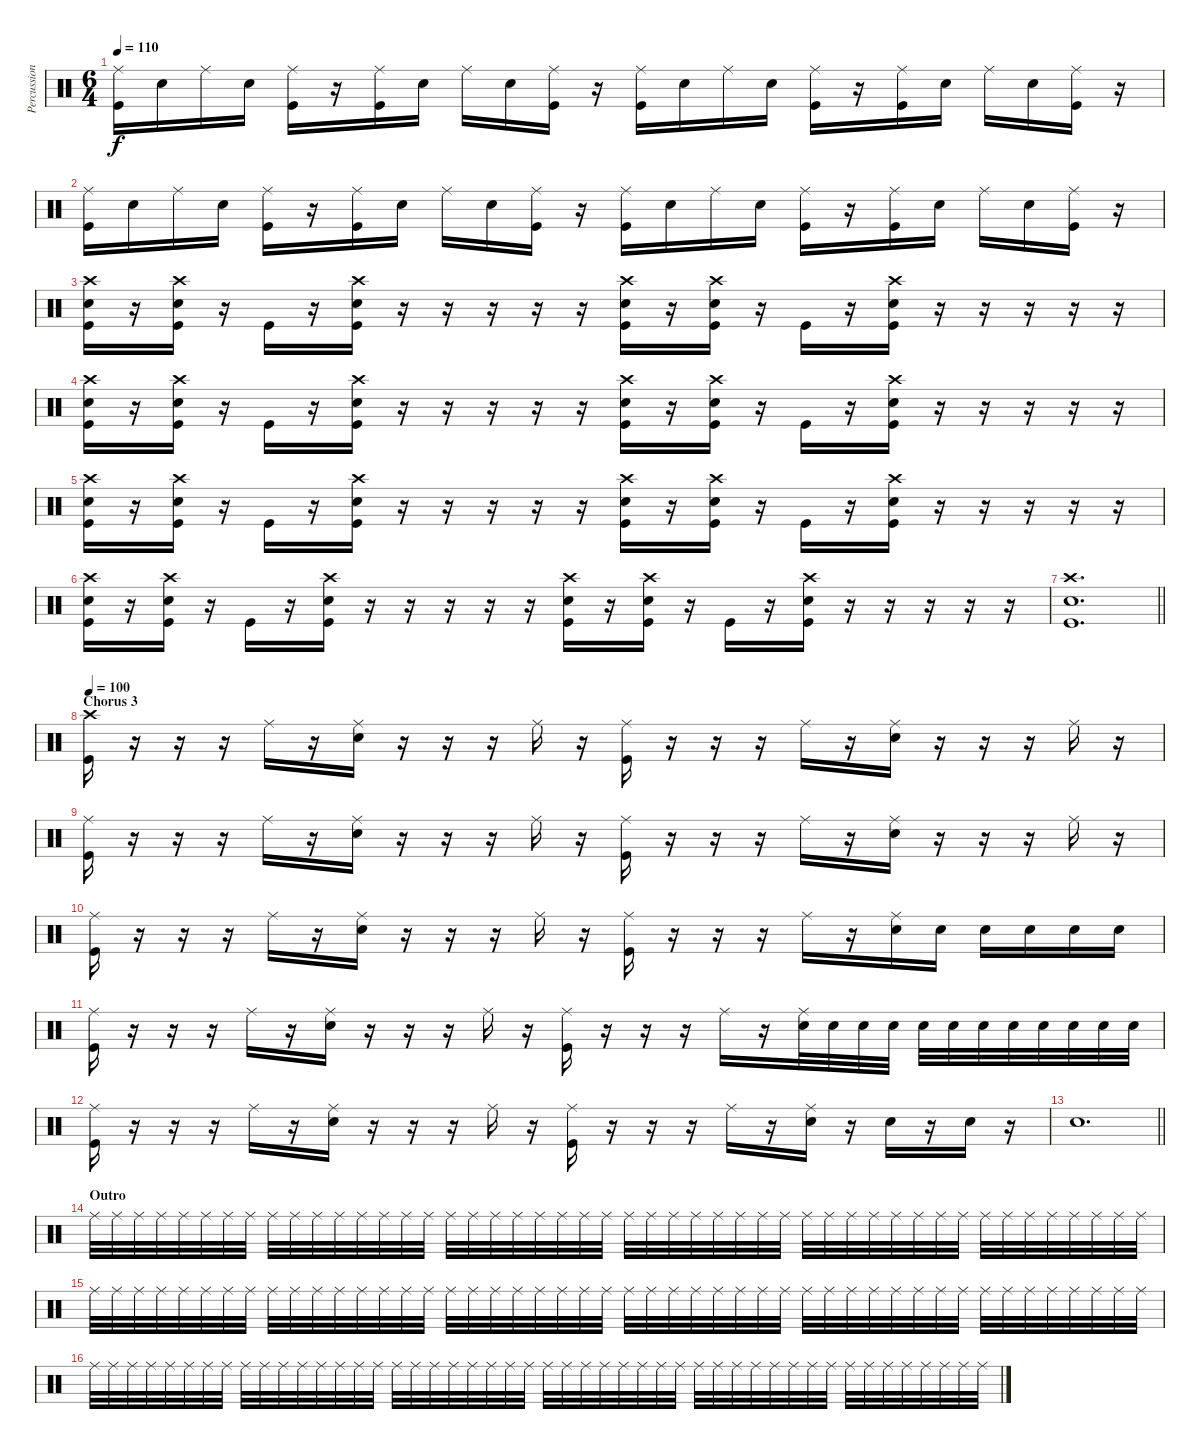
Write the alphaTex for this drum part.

\track ("Percussion 2" "Percussion") {instrument percussion}
\staff {score}
\articulation defaults
\ts (6 4)
\tempo 110
\clef neutral
\ks c
("Ride (middle)" "Kick (hit)").16{dy f} "Snare (hit) 2".16 "Ride (middle)".16 "Snare (hit) 2".16 ("Ride (middle)" "Kick (hit)").16 r.16 ("Ride (middle)" "Kick (hit)").16 "Snare (hit) 2".16 "Ride (middle)".16 "Snare (hit) 2".16 ("Ride (middle)" "Kick (hit)").16 r.16 ("Ride (middle)" "Kick (hit)").16 "Snare (hit) 2".16 "Ride (middle)".16 "Snare (hit) 2".16 ("Ride (middle)" "Kick (hit)").16 r.16 ("Ride (middle)" "Kick (hit)").16 "Snare (hit) 2".16 "Ride (middle)".16 "Snare (hit) 2".16 ("Ride (middle)" "Kick (hit)").16 r.16 |
("Ride (middle)" "Kick (hit)").16 "Snare (hit) 2".16 "Ride (middle)".16 "Snare (hit) 2".16 ("Ride (middle)" "Kick (hit)").16 r.16 ("Ride (middle)" "Kick (hit)").16 "Snare (hit) 2".16 "Ride (middle)".16 "Snare (hit) 2".16 ("Ride (middle)" "Kick (hit)").16 r.16 ("Ride (middle)" "Kick (hit)").16 "Snare (hit) 2".16 "Ride (middle)".16 "Snare (hit) 2".16 ("Ride (middle)" "Kick (hit)").16 r.16 ("Ride (middle)" "Kick (hit)").16 "Snare (hit) 2".16 "Ride (middle)".16 "Snare (hit) 2".16 ("Ride (middle)" "Kick (hit)").16 r.16 |
("Crash high (hit)" "Snare (hit) 2" "Kick (hit)").16 r.16 ("Crash high (hit)" "Snare (hit) 2" "Kick (hit)").16 r.16 "Kick (hit)".16 r.16 ("Crash high (hit)" "Snare (hit) 2" "Kick (hit)").16 r.16 r.16 r.16 r.16 r.16 ("Crash high (hit)" "Snare (hit) 2" "Kick (hit)").16 r.16 ("Crash high (hit)" "Snare (hit) 2" "Kick (hit)").16 r.16 "Kick (hit)".16 r.16 ("Crash high (hit)" "Snare (hit) 2" "Kick (hit)").16 r.16 r.16 r.16 r.16 r.16 |
("Crash high (hit)" "Snare (hit) 2" "Kick (hit)").16 r.16 ("Crash high (hit)" "Snare (hit) 2" "Kick (hit)").16 r.16 "Kick (hit)".16 r.16 ("Crash high (hit)" "Snare (hit) 2" "Kick (hit)").16 r.16 r.16 r.16 r.16 r.16 ("Crash high (hit)" "Snare (hit) 2" "Kick (hit)").16 r.16 ("Crash high (hit)" "Snare (hit) 2" "Kick (hit)").16 r.16 "Kick (hit)".16 r.16 ("Crash high (hit)" "Snare (hit) 2" "Kick (hit)").16 r.16 r.16 r.16 r.16 r.16 |
("Crash high (hit)" "Snare (hit) 2" "Kick (hit)").16 r.16 ("Crash high (hit)" "Snare (hit) 2" "Kick (hit)").16 r.16 "Kick (hit)".16 r.16 ("Crash high (hit)" "Snare (hit) 2" "Kick (hit)").16 r.16 r.16 r.16 r.16 r.16 ("Crash high (hit)" "Snare (hit) 2" "Kick (hit)").16 r.16 ("Crash high (hit)" "Snare (hit) 2" "Kick (hit)").16 r.16 "Kick (hit)".16 r.16 ("Crash high (hit)" "Snare (hit) 2" "Kick (hit)").16 r.16 r.16 r.16 r.16 r.16 |
("Crash high (hit)" "Snare (hit) 2" "Kick (hit)").16 r.16 ("Crash high (hit)" "Snare (hit) 2" "Kick (hit)").16 r.16 "Kick (hit)".16 r.16 ("Crash high (hit)" "Snare (hit) 2" "Kick (hit)").16 r.16 r.16 r.16 r.16 r.16 ("Crash high (hit)" "Snare (hit) 2" "Kick (hit)").16 r.16 ("Crash high (hit)" "Snare (hit) 2" "Kick (hit)").16 r.16 "Kick (hit)".16 r.16 ("Crash high (hit)" "Snare (hit) 2" "Kick (hit)").16 r.16 r.16 r.16 r.16 r.16 |
\barLineRight lightlight
("Crash high (hit)" "Snare (hit) 2" "Kick (hit)").1{d} |
\section ("" "Chorus 3")
\tempo 100
("Crash high (hit)" "Kick (hit)").16 r.16 r.16 r.16 "Ride (middle)".16 r.16 ("Ride (middle)" "Snare (hit) 2").16 r.16 r.16 r.16 "Ride (middle)".16 r.16 ("Ride (middle)" "Kick (hit)").16 r.16 r.16 r.16 "Ride (middle)".16 r.16 ("Ride (middle)" "Snare (hit) 2").16 r.16 r.16 r.16 "Ride (middle)".16 r.16 |
("Ride (middle)" "Kick (hit)").16 r.16 r.16 r.16 "Ride (middle)".16 r.16 ("Ride (middle)" "Snare (hit) 2").16 r.16 r.16 r.16 "Ride (middle)".16 r.16 ("Ride (middle)" "Kick (hit)").16 r.16 r.16 r.16 "Ride (middle)".16 r.16 ("Ride (middle)" "Snare (hit) 2").16 r.16 r.16 r.16 "Ride (middle)".16 r.16 |
("Ride (middle)" "Kick (hit)").16 r.16 r.16 r.16 "Ride (middle)".16 r.16 ("Ride (middle)" "Snare (hit) 2").16 r.16 r.16 r.16 "Ride (middle)".16 r.16 ("Ride (middle)" "Kick (hit)").16 r.16 r.16 r.16 "Ride (middle)".16 r.16 ("Ride (middle)" "Snare (hit) 2").16 "Snare (hit) 2".16 "Snare (hit) 2".16 "Snare (hit) 2".16 "Snare (hit) 2".16 "Snare (hit) 2".16 |
("Ride (middle)" "Kick (hit)").16 r.16 r.16 r.16 "Ride (middle)".16 r.16 ("Ride (middle)" "Snare (hit) 2").16 r.16 r.16 r.16 "Ride (middle)".16 r.16 ("Ride (middle)" "Kick (hit)").16 r.16 r.16 r.16 "Ride (middle)".16 r.16 ("Ride (middle)" "Snare (hit) 2").32 "Snare (hit) 2".32 "Snare (hit) 2".32 "Snare (hit) 2".32 "Snare (hit) 2".32 "Snare (hit) 2".32 "Snare (hit) 2".32 "Snare (hit) 2".32 "Snare (hit) 2".32 "Snare (hit) 2".32 "Snare (hit) 2".32 "Snare (hit) 2".32 |
("Ride (middle)" "Kick (hit)").16 r.16 r.16 r.16 "Ride (middle)".16 r.16 ("Ride (middle)" "Snare (hit) 2").16 r.16 r.16 r.16 "Ride (middle)".16 r.16 ("Ride (middle)" "Kick (hit)").16 r.16 r.16 r.16 "Ride (middle)".16 r.16 ("Ride (middle)" "Snare (hit) 2").16 r.16 "Snare (hit) 2".16 r.16 "Snare (hit) 2".16 r.16 |
\barLineRight lightlight "Snare (hit) 2".1{d}
|
\section ("" "Outro")
"Ride (middle)".32 "Ride (middle)".32 "Ride (middle)".32 "Ride (middle)".32 "Ride (middle)".32 "Ride (middle)".32 "Ride (middle)".32 "Ride (middle)".32 "Ride (middle)".32 "Ride (middle)".32 "Ride (middle)".32 "Ride (middle)".32 "Ride (middle)".32 "Ride (middle)".32 "Ride (middle)".32 "Ride (middle)".32 "Ride (middle)".32 "Ride (middle)".32 "Ride (middle)".32 "Ride (middle)".32 "Ride (middle)".32 "Ride (middle)".32 "Ride (middle)".32 "Ride (middle)".32 "Ride (middle)".32 "Ride (middle)".32 "Ride (middle)".32 "Ride (middle)".32 "Ride (middle)".32 "Ride (middle)".32 "Ride (middle)".32 "Ride (middle)".32 "Ride (middle)".32 "Ride (middle)".32 "Ride (middle)".32 "Ride (middle)".32 "Ride (middle)".32 "Ride (middle)".32 "Ride (middle)".32 "Ride (middle)".32 "Ride (middle)".32 "Ride (middle)".32 "Ride (middle)".32 "Ride (middle)".32 "Ride (middle)".32 "Ride (middle)".32 "Ride (middle)".32 "Ride (middle)".32 |
"Ride (middle)".32 "Ride (middle)".32 "Ride (middle)".32 "Ride (middle)".32 "Ride (middle)".32 "Ride (middle)".32 "Ride (middle)".32 "Ride (middle)".32 "Ride (middle)".32 "Ride (middle)".32 "Ride (middle)".32 "Ride (middle)".32 "Ride (middle)".32 "Ride (middle)".32 "Ride (middle)".32 "Ride (middle)".32 "Ride (middle)".32 "Ride (middle)".32 "Ride (middle)".32 "Ride (middle)".32 "Ride (middle)".32 "Ride (middle)".32 "Ride (middle)".32 "Ride (middle)".32 "Ride (middle)".32 "Ride (middle)".32 "Ride (middle)".32 "Ride (middle)".32 "Ride (middle)".32 "Ride (middle)".32 "Ride (middle)".32 "Ride (middle)".32 "Ride (middle)".32 "Ride (middle)".32 "Ride (middle)".32 "Ride (middle)".32 "Ride (middle)".32 "Ride (middle)".32 "Ride (middle)".32 "Ride (middle)".32 "Ride (middle)".32 "Ride (middle)".32 "Ride (middle)".32 "Ride (middle)".32 "Ride (middle)".32 "Ride (middle)".32 "Ride (middle)".32 "Ride (middle)".32 |
"Ride (middle)".32 "Ride (middle)".32 "Ride (middle)".32 "Ride (middle)".32 "Ride (middle)".32 "Ride (middle)".32 "Ride (middle)".32 "Ride (middle)".32 "Ride (middle)".32 "Ride (middle)".32 "Ride (middle)".32 "Ride (middle)".32 "Ride (middle)".32 "Ride (middle)".32 "Ride (middle)".32 "Ride (middle)".32 "Ride (middle)".32 "Ride (middle)".32 "Ride (middle)".32 "Ride (middle)".32 "Ride (middle)".32 "Ride (middle)".32 "Ride (middle)".32 "Ride (middle)".32 "Ride (middle)".32 "Ride (middle)".32 "Ride (middle)".32 "Ride (middle)".32 "Ride (middle)".32 "Ride (middle)".32 "Ride (middle)".32 "Ride (middle)".32 "Ride (middle)".32 "Ride (middle)".32 "Ride (middle)".32 "Ride (middle)".32 "Ride (middle)".32 "Ride (middle)".32 "Ride (middle)".32 "Ride (middle)".32 "Ride (middle)".32 "Ride (middle)".32 "Ride (middle)".32 "Ride (middle)".32 "Ride (middle)".32 "Ride (middle)".32 "Ride (middle)".32 "Ride (middle)".32
